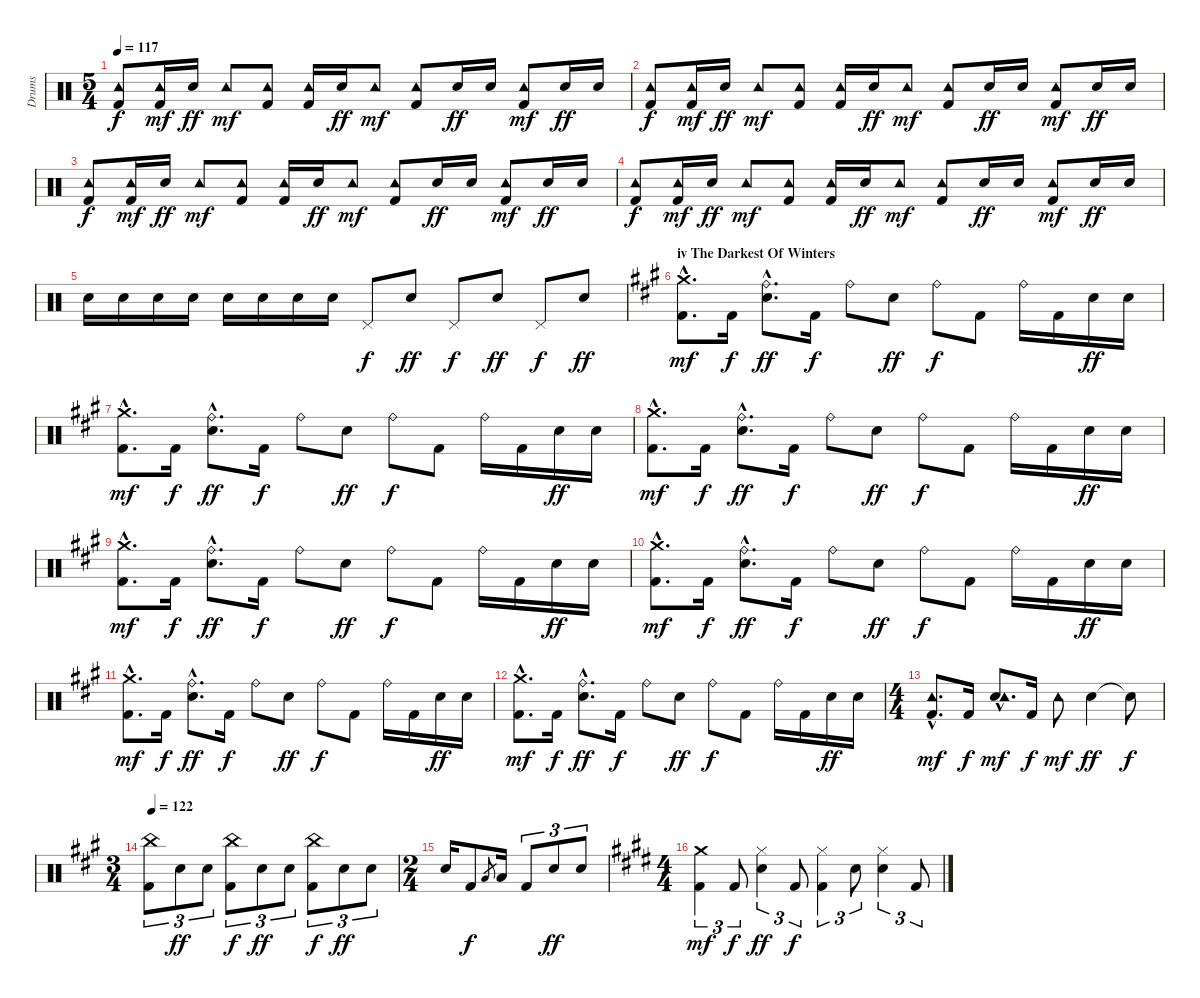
\track ("Drums" "Drums") {instrument percussion}
\staff {score}
\articulation defaults
\ts (5 4)
\tempo 117
\clef neutral
\ks c
("Kick (hit) 2" "Tambourine (hit)").8{dy f} ("Kick (hit) 2" "Tambourine (hit)").16{dy mf} "Electric Snare (hit)".16{dy ff} "Tambourine (hit)".8{dy mf} ("Kick (hit) 2" "Tambourine (hit)").8 ("Kick (hit) 2" "Tambourine (hit)").16 "Electric Snare (hit)".16{dy ff} "Tambourine (hit)".8{dy mf} ("Kick (hit) 2" "Tambourine (hit)").8 "Electric Snare (hit)".16{dy ff} "Electric Snare (hit)".16 ("Kick (hit) 2" "Tambourine (hit)").8{dy mf} "Electric Snare (hit)".16{dy ff} "Electric Snare (hit)".16 |
("Kick (hit) 2" "Tambourine (hit)").8{dy f} ("Kick (hit) 2" "Tambourine (hit)").16{dy mf} "Electric Snare (hit)".16{dy ff} "Tambourine (hit)".8{dy mf} ("Kick (hit) 2" "Tambourine (hit)").8 ("Kick (hit) 2" "Tambourine (hit)").16 "Electric Snare (hit)".16{dy ff} "Tambourine (hit)".8{dy mf} ("Kick (hit) 2" "Tambourine (hit)").8 "Electric Snare (hit)".16{dy ff} "Electric Snare (hit)".16 ("Kick (hit) 2" "Tambourine (hit)").8{dy mf} "Electric Snare (hit)".16{dy ff} "Electric Snare (hit)".16 |
("Kick (hit) 2" "Tambourine (hit)").8{dy f} ("Kick (hit) 2" "Tambourine (hit)").16{dy mf} "Electric Snare (hit)".16{dy ff} "Tambourine (hit)".8{dy mf} ("Kick (hit) 2" "Tambourine (hit)").8 ("Kick (hit) 2" "Tambourine (hit)").16 "Electric Snare (hit)".16{dy ff} "Tambourine (hit)".8{dy mf} ("Kick (hit) 2" "Tambourine (hit)").8 "Electric Snare (hit)".16{dy ff} "Electric Snare (hit)".16 ("Kick (hit) 2" "Tambourine (hit)").8{dy mf} "Electric Snare (hit)".16{dy ff} "Electric Snare (hit)".16 |
("Kick (hit) 2" "Tambourine (hit)").8{dy f} ("Kick (hit) 2" "Tambourine (hit)").16{dy mf} "Electric Snare (hit)".16{dy ff} "Tambourine (hit)".8{dy mf} ("Kick (hit) 2" "Tambourine (hit)").8 ("Kick (hit) 2" "Tambourine (hit)").16 "Electric Snare (hit)".16{dy ff} "Tambourine (hit)".8{dy mf} ("Kick (hit) 2" "Tambourine (hit)").8 "Electric Snare (hit)".16{dy ff} "Electric Snare (hit)".16 ("Kick (hit) 2" "Tambourine (hit)").8{dy mf} "Electric Snare (hit)".16{dy ff} "Electric Snare (hit)".16 |
"Electric Snare (hit)".16 "Electric Snare (hit)".16 "Electric Snare (hit)".16 "Electric Snare (hit)".16 "Electric Snare (hit)".16 "Electric Snare (hit)".16 "Electric Snare (hit)".16 "Electric Snare (hit)".16 "Pedal Hi-Hat (hit)".8{dy f} "Electric Snare (hit)".8{dy ff} "Pedal Hi-Hat (hit)".8{dy f} "Electric Snare (hit)".8{dy ff} "Pedal Hi-Hat (hit)".8{dy f} "Electric Snare (hit)".8{dy ff} |
\section ("" "iv The Darkest Of Winters")
\ks a
("Kick (hit) 2"{hac} "Crash medium (hit)").8{d dy mf} "Kick (hit) 2".16{dy f} ("Electric Snare (hit)"{hac} "Ride (bell)").8{d dy ff} "Kick (hit) 2".16{dy f} "Ride (bell)".8 "Electric Snare (hit)".8{dy ff} "Ride (bell)".8{dy f} "Kick (hit) 2".8 "Ride (bell)".16 "Kick (hit) 2".16 "Electric Snare (hit)".16{dy ff} "Electric Snare (hit)".16 |
("Kick (hit) 2"{hac} "Crash medium (hit)").8{d dy mf} "Kick (hit) 2".16{dy f} ("Electric Snare (hit)"{hac} "Ride (bell)").8{d dy ff} "Kick (hit) 2".16{dy f} "Ride (bell)".8 "Electric Snare (hit)".8{dy ff} "Ride (bell)".8{dy f} "Kick (hit) 2".8 "Ride (bell)".16 "Kick (hit) 2".16 "Electric Snare (hit)".16{dy ff} "Electric Snare (hit)".16 |
("Kick (hit) 2"{hac} "Crash medium (hit)").8{d dy mf} "Kick (hit) 2".16{dy f} ("Electric Snare (hit)"{hac} "Ride (bell)").8{d dy ff} "Kick (hit) 2".16{dy f} "Ride (bell)".8 "Electric Snare (hit)".8{dy ff} "Ride (bell)".8{dy f} "Kick (hit) 2".8 "Ride (bell)".16 "Kick (hit) 2".16 "Electric Snare (hit)".16{dy ff} "Electric Snare (hit)".16 |
("Kick (hit) 2"{hac} "Crash medium (hit)").8{d dy mf} "Kick (hit) 2".16{dy f} ("Electric Snare (hit)"{hac} "Ride (bell)").8{d dy ff} "Kick (hit) 2".16{dy f} "Ride (bell)".8 "Electric Snare (hit)".8{dy ff} "Ride (bell)".8{dy f} "Kick (hit) 2".8 "Ride (bell)".16 "Kick (hit) 2".16 "Electric Snare (hit)".16{dy ff} "Electric Snare (hit)".16 |
("Kick (hit) 2"{hac} "Crash medium (hit)").8{d dy mf} "Kick (hit) 2".16{dy f} ("Electric Snare (hit)"{hac} "Ride (bell)").8{d dy ff} "Kick (hit) 2".16{dy f} "Ride (bell)".8 "Electric Snare (hit)".8{dy ff} "Ride (bell)".8{dy f} "Kick (hit) 2".8 "Ride (bell)".16 "Kick (hit) 2".16 "Electric Snare (hit)".16{dy ff} "Electric Snare (hit)".16 |
("Kick (hit) 2"{hac} "Crash medium (hit)").8{d dy mf} "Kick (hit) 2".16{dy f} ("Electric Snare (hit)"{hac} "Ride (bell)").8{d dy ff} "Kick (hit) 2".16{dy f} "Ride (bell)".8 "Electric Snare (hit)".8{dy ff} "Ride (bell)".8{dy f} "Kick (hit) 2".8 "Ride (bell)".16 "Kick (hit) 2".16 "Electric Snare (hit)".16{dy ff} "Electric Snare (hit)".16 |
("Kick (hit) 2"{hac} "Crash medium (hit)").8{d dy mf} "Kick (hit) 2".16{dy f} ("Electric Snare (hit)"{hac} "Ride (bell)").8{d dy ff} "Kick (hit) 2".16{dy f} "Ride (bell)".8 "Electric Snare (hit)".8{dy ff} "Ride (bell)".8{dy f} "Kick (hit) 2".8 "Ride (bell)".16 "Kick (hit) 2".16 "Electric Snare (hit)".16{dy ff} "Electric Snare (hit)".16 |
\ts (4 4)
("Kick (hit) 2"{hac} "Tambourine (hit)"{hac}).8{d dy mf} "Kick (hit) 2".16{dy f} ("Electric Snare (hit)"{hac} "Tambourine (hit)"{hac}).8{d dy mf} "Kick (hit) 2".16{dy f} "Tambourine (hit)".8{dy mf} "Electric Snare (hit)".4{dy ff} "Snare (hit)"{t}.8{dy f} |
\ts (3 4)
\tempo 122
("Kick (hit) 2" "China (hit)").8{tu (3 2)} "Electric Snare (hit)".8{tu (3 2) dy ff} "Electric Snare (hit)".8{tu (3 2)} ("Kick (hit) 2" "China (hit)").8{tu (3 2) dy f} "Electric Snare (hit)".8{tu (3 2) dy ff} "Electric Snare (hit)".8{tu (3 2)} ("Kick (hit) 2" "China (hit)").8{tu (3 2) dy f} "Electric Snare (hit)".8{tu (3 2) dy ff} "Electric Snare (hit)".8{tu (3 2)} |
\ts (2 4)
"Electric Snare (hit)".16 "Kick (hit) 2".8{dy f} "Low Tom (hit)".8{gr} "Low Tom (hit)".16 "Kick (hit) 2".8{tu (3 2)} "Electric Snare (hit)".8{tu (3 2) dy ff} "Electric Snare (hit)".8{tu (3 2)} |
\ts (4 4)
\ks e
("Kick (hit) 2" "Crash medium (hit)").4{tu (3 2) dy mf} "Kick (hit) 2".8{tu (3 2) dy f} ("Electric Snare (hit)" "Hi-Hat (closed)").4{tu (3 2) dy ff} "Kick (hit) 2".8{tu (3 2) dy f} ("Kick (hit) 2" "Hi-Hat (closed)").4{tu (3 2)} "Snare (hit) 2".8{tu (3 2)} ("Electric Snare (hit)" "Hi-Hat (closed)").4{tu (3 2)} "Kick (hit) 2".8{tu (3 2)}
